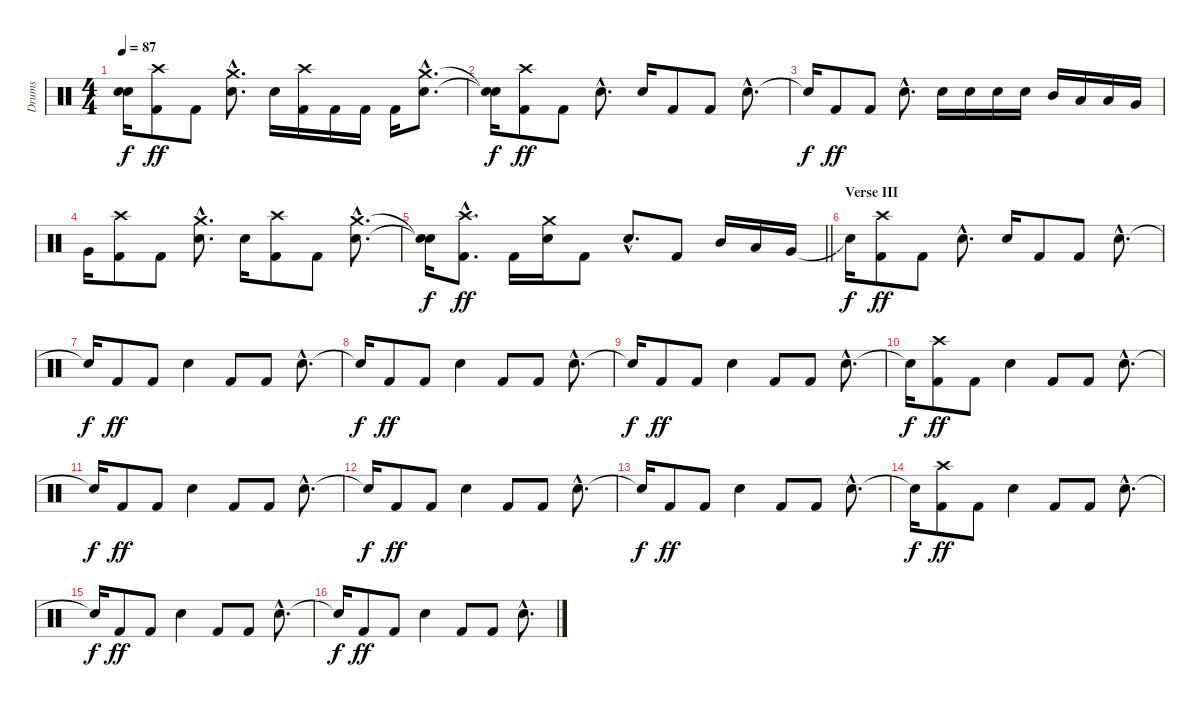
\track ("Drums" "Drums") {instrument percussion}
\staff {score}
\articulation defaults
\ts (4 4)
\tempo 87
\clef neutral
\ks c
("Snare (hit)"{t} "Snare (hit)"{t}).16{dy f} ("Kick (hit) 2" "Crash high (hit)").8{dy ff} "Kick (hit) 2".8 ("Electric Snare (hit)"{hac} "Crash medium (hit)"{hac}).8{d} "Electric Snare (hit)".16 ("Kick (hit) 2" "Crash high (hit)").16 "Kick (hit) 2".16 "Kick (hit) 2".16 "Kick (hit) 2".16 ("Electric Snare (hit)"{hac} "Crash medium (hit)"{hac}).8{d} |
("Snare (hit)"{t} "Snare (hit)"{t}).16{dy f} ("Kick (hit) 2" "Crash high (hit)").8{dy ff} "Kick (hit) 2".8 "Electric Snare (hit)"{hac}.8{d} "Electric Snare (hit)".16 "Kick (hit) 2".8 "Kick (hit) 2".8 "Electric Snare (hit)"{hac}.8{d} |
"Snare (hit)"{t}.16{dy f} "Kick (hit) 2".8{dy ff} "Kick (hit) 2".8 "Electric Snare (hit)"{hac}.8{d} "Electric Snare (hit)".16 "Electric Snare (hit)".16 "Electric Snare (hit)".16 "Electric Snare (hit)".16 "Mid Tom (hit)".16 "Low Tom (hit)".16 "Low Tom (hit)".16 "Very Low Tom (hit)".16 |
"Very Low Tom (hit)".16 ("Kick (hit) 2" "Crash high (hit)").8 "Kick (hit) 2".8 ("Electric Snare (hit)"{hac} "Crash medium (hit)"{hac}).8{d} "Electric Snare (hit)".16 ("Kick (hit) 2" "Crash high (hit)").8 "Kick (hit) 2".8 ("Electric Snare (hit)"{hac} "Crash medium (hit)"{hac}).8{d} |
\barLineRight lightlight
("Snare (hit)"{t} "Snare (hit)"{t}).16{dy f} ("Kick (hit) 2"{hac} "Crash high (hit)"{hac}).8{d dy ff} "Kick (hit) 2".16 ("Electric Snare (hit)" "Crash medium (hit)").16 "Kick (hit) 2".8 "Electric Snare (hit)"{hac}.8{d} "Kick (hit) 2".8 "Mid Tom (hit)".16 "Low Tom (hit)".16 "Very Low Tom (hit)".16 |
\section ("" "Verse III")
"Snare (hit)"{t}.16{dy f} ("Kick (hit) 2" "Crash high (hit)").8{dy ff} "Kick (hit) 2".8 "Electric Snare (hit)"{hac}.8{d} "Electric Snare (hit)".16 "Kick (hit) 2".8 "Kick (hit) 2".8 "Electric Snare (hit)"{hac}.8{d} |
"Snare (hit)"{t}.16{dy f} "Kick (hit) 2".8{dy ff} "Kick (hit) 2".8 "Electric Snare (hit)".4 "Kick (hit) 2".8 "Kick (hit) 2".8 "Electric Snare (hit)"{hac}.8{d} |
"Snare (hit)"{t}.16{dy f} "Kick (hit) 2".8{dy ff} "Kick (hit) 2".8 "Electric Snare (hit)".4 "Kick (hit) 2".8 "Kick (hit) 2".8 "Electric Snare (hit)"{hac}.8{d} |
"Snare (hit)"{t}.16{dy f} "Kick (hit) 2".8{dy ff} "Kick (hit) 2".8 "Electric Snare (hit)".4 "Kick (hit) 2".8 "Kick (hit) 2".8 "Electric Snare (hit)"{hac}.8{d} |
"Snare (hit)"{t}.16{dy f} ("Kick (hit) 2" "Crash high (hit)").8{dy ff} "Kick (hit) 2".8 "Electric Snare (hit)".4 "Kick (hit) 2".8 "Kick (hit) 2".8 "Electric Snare (hit)"{hac}.8{d} |
"Snare (hit)"{t}.16{dy f} "Kick (hit) 2".8{dy ff} "Kick (hit) 2".8 "Electric Snare (hit)".4 "Kick (hit) 2".8 "Kick (hit) 2".8 "Electric Snare (hit)"{hac}.8{d} |
"Snare (hit)"{t}.16{dy f} "Kick (hit) 2".8{dy ff} "Kick (hit) 2".8 "Electric Snare (hit)".4 "Kick (hit) 2".8 "Kick (hit) 2".8 "Electric Snare (hit)"{hac}.8{d} |
"Snare (hit)"{t}.16{dy f} "Kick (hit) 2".8{dy ff} "Kick (hit) 2".8 "Electric Snare (hit)".4 "Kick (hit) 2".8 "Kick (hit) 2".8 "Electric Snare (hit)"{hac}.8{d} |
"Snare (hit)"{t}.16{dy f} ("Kick (hit) 2" "Crash high (hit)").8{dy ff} "Kick (hit) 2".8 "Electric Snare (hit)".4 "Kick (hit) 2".8 "Kick (hit) 2".8 "Electric Snare (hit)"{hac}.8{d} |
"Snare (hit)"{t}.16{dy f} "Kick (hit) 2".8{dy ff} "Kick (hit) 2".8 "Electric Snare (hit)".4 "Kick (hit) 2".8 "Kick (hit) 2".8 "Electric Snare (hit)"{hac}.8{d} |
"Snare (hit)"{t}.16{dy f} "Kick (hit) 2".8{dy ff} "Kick (hit) 2".8 "Electric Snare (hit)".4 "Kick (hit) 2".8 "Kick (hit) 2".8 "Electric Snare (hit)"{hac}.8{d}
